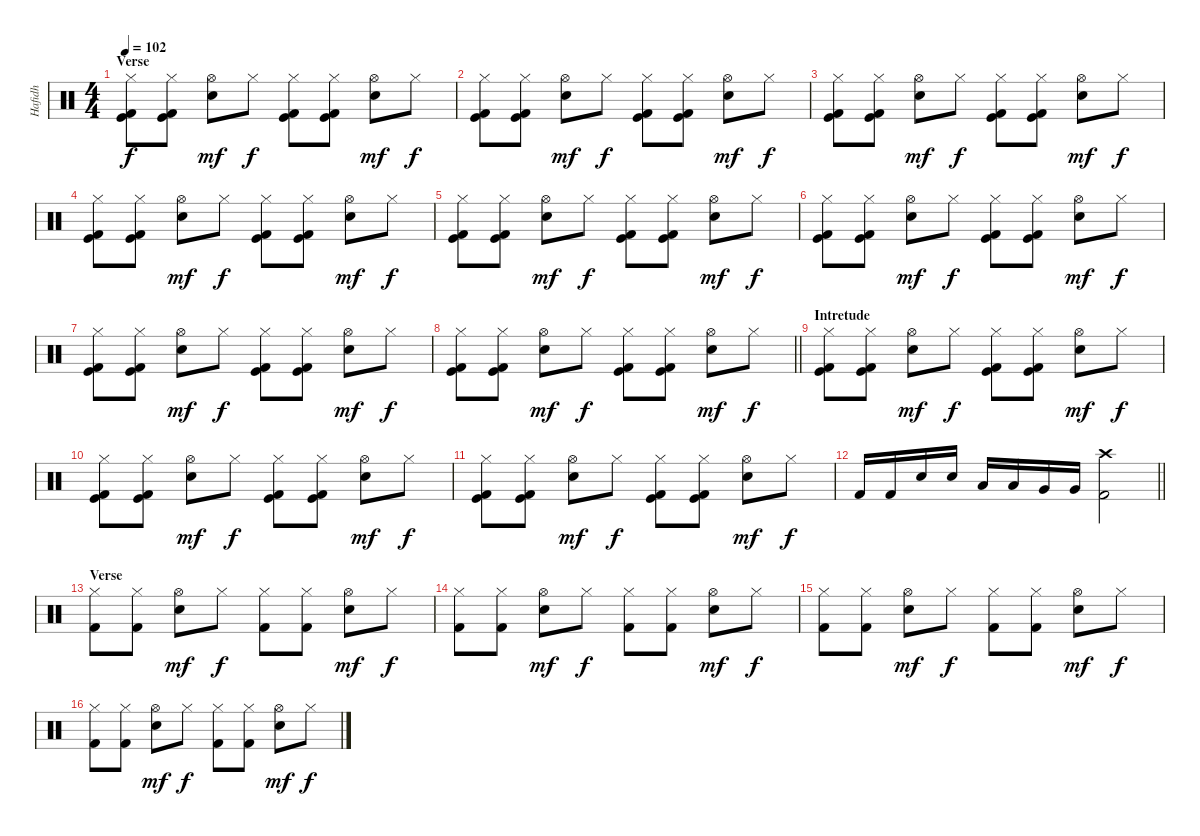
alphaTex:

\track ("Hafidh" "Hafidh") {instrument percussion}
\staff {score}
\articulation defaults
\ts (4 4)
\section ("" "Verse")
\tempo 102
\clef neutral
\ks c
("Hi-Hat (closed)" "Kick (hit) 2" "Kick (hit)").8{dy f} ("Hi-Hat (closed)" "Kick (hit) 2" "Kick (hit)").8 ("Hi-Hat (open)" "Electric Snare (hit)").8{dy mf} "Hi-Hat (closed)".8{dy f} ("Hi-Hat (closed)" "Kick (hit) 2" "Kick (hit)").8 ("Hi-Hat (closed)" "Kick (hit) 2" "Kick (hit)").8 ("Hi-Hat (open)" "Electric Snare (hit)").8{dy mf} "Hi-Hat (closed)".8{dy f} |
("Hi-Hat (closed)" "Kick (hit) 2" "Kick (hit)").8 ("Hi-Hat (closed)" "Kick (hit) 2" "Kick (hit)").8 ("Hi-Hat (open)" "Electric Snare (hit)").8{dy mf} "Hi-Hat (closed)".8{dy f} ("Hi-Hat (closed)" "Kick (hit) 2" "Kick (hit)").8 ("Hi-Hat (closed)" "Kick (hit) 2" "Kick (hit)").8 ("Hi-Hat (open)" "Electric Snare (hit)").8{dy mf} "Hi-Hat (closed)".8{dy f} |
("Hi-Hat (closed)" "Kick (hit) 2" "Kick (hit)").8 ("Hi-Hat (closed)" "Kick (hit) 2" "Kick (hit)").8 ("Hi-Hat (open)" "Electric Snare (hit)").8{dy mf} "Hi-Hat (closed)".8{dy f} ("Hi-Hat (closed)" "Kick (hit) 2" "Kick (hit)").8 ("Hi-Hat (closed)" "Kick (hit) 2" "Kick (hit)").8 ("Hi-Hat (open)" "Electric Snare (hit)").8{dy mf} "Hi-Hat (closed)".8{dy f} |
("Hi-Hat (closed)" "Kick (hit) 2" "Kick (hit)").8 ("Hi-Hat (closed)" "Kick (hit) 2" "Kick (hit)").8 ("Hi-Hat (open)" "Electric Snare (hit)").8{dy mf} "Hi-Hat (closed)".8{dy f} ("Hi-Hat (closed)" "Kick (hit) 2" "Kick (hit)").8 ("Hi-Hat (closed)" "Kick (hit) 2" "Kick (hit)").8 ("Hi-Hat (open)" "Electric Snare (hit)").8{dy mf} "Hi-Hat (closed)".8{dy f} |
("Hi-Hat (closed)" "Kick (hit) 2" "Kick (hit)").8 ("Hi-Hat (closed)" "Kick (hit) 2" "Kick (hit)").8 ("Hi-Hat (open)" "Electric Snare (hit)").8{dy mf} "Hi-Hat (closed)".8{dy f} ("Hi-Hat (closed)" "Kick (hit) 2" "Kick (hit)").8 ("Hi-Hat (closed)" "Kick (hit) 2" "Kick (hit)").8 ("Hi-Hat (open)" "Electric Snare (hit)").8{dy mf} "Hi-Hat (closed)".8{dy f} |
("Hi-Hat (closed)" "Kick (hit) 2" "Kick (hit)").8 ("Hi-Hat (closed)" "Kick (hit) 2" "Kick (hit)").8 ("Hi-Hat (open)" "Electric Snare (hit)").8{dy mf} "Hi-Hat (closed)".8{dy f} ("Hi-Hat (closed)" "Kick (hit) 2" "Kick (hit)").8 ("Hi-Hat (closed)" "Kick (hit) 2" "Kick (hit)").8 ("Hi-Hat (open)" "Electric Snare (hit)").8{dy mf} "Hi-Hat (closed)".8{dy f} |
("Hi-Hat (closed)" "Kick (hit) 2" "Kick (hit)").8 ("Hi-Hat (closed)" "Kick (hit) 2" "Kick (hit)").8 ("Hi-Hat (open)" "Electric Snare (hit)").8{dy mf} "Hi-Hat (closed)".8{dy f} ("Hi-Hat (closed)" "Kick (hit) 2" "Kick (hit)").8 ("Hi-Hat (closed)" "Kick (hit) 2" "Kick (hit)").8 ("Hi-Hat (open)" "Electric Snare (hit)").8{dy mf} "Hi-Hat (closed)".8{dy f} |
\barLineRight lightlight
("Hi-Hat (closed)" "Kick (hit) 2" "Kick (hit)").8 ("Hi-Hat (closed)" "Kick (hit) 2" "Kick (hit)").8 ("Hi-Hat (open)" "Electric Snare (hit)").8{dy mf} "Hi-Hat (closed)".8{dy f} ("Hi-Hat (closed)" "Kick (hit) 2" "Kick (hit)").8 ("Hi-Hat (closed)" "Kick (hit) 2" "Kick (hit)").8 ("Hi-Hat (open)" "Electric Snare (hit)").8{dy mf} "Hi-Hat (closed)".8{dy f} |
\section ("" "Intretude")
("Hi-Hat (closed)" "Kick (hit) 2" "Kick (hit)").8 ("Hi-Hat (closed)" "Kick (hit) 2" "Kick (hit)").8 ("Hi-Hat (open)" "Electric Snare (hit)").8{dy mf} "Hi-Hat (closed)".8{dy f} ("Hi-Hat (closed)" "Kick (hit) 2" "Kick (hit)").8 ("Hi-Hat (closed)" "Kick (hit) 2" "Kick (hit)").8 ("Hi-Hat (open)" "Electric Snare (hit)").8{dy mf} "Hi-Hat (closed)".8{dy f} |
("Hi-Hat (closed)" "Kick (hit) 2" "Kick (hit)").8 ("Hi-Hat (closed)" "Kick (hit) 2" "Kick (hit)").8 ("Hi-Hat (open)" "Electric Snare (hit)").8{dy mf} "Hi-Hat (closed)".8{dy f} ("Hi-Hat (closed)" "Kick (hit) 2" "Kick (hit)").8 ("Hi-Hat (closed)" "Kick (hit) 2" "Kick (hit)").8 ("Hi-Hat (open)" "Electric Snare (hit)").8{dy mf} "Hi-Hat (closed)".8{dy f} |
("Hi-Hat (closed)" "Kick (hit) 2" "Kick (hit)").8 ("Hi-Hat (closed)" "Kick (hit) 2" "Kick (hit)").8 ("Hi-Hat (open)" "Electric Snare (hit)").8{dy mf} "Hi-Hat (closed)".8{dy f} ("Hi-Hat (closed)" "Kick (hit) 2" "Kick (hit)").8 ("Hi-Hat (closed)" "Kick (hit) 2" "Kick (hit)").8 ("Hi-Hat (open)" "Electric Snare (hit)").8{dy mf} "Hi-Hat (closed)".8{dy f} |
\barLineRight lightlight "Kick (hit) 2".16 "Kick (hit) 2".16 "Electric Snare (hit)".16 "Electric Snare (hit)".16 "Low Tom (hit)".16 "Low Tom (hit)".16 "Very Low Tom (hit)".16 "Very Low Tom (hit)".16
("Crash high (hit)" "Kick (hit) 2").2{volume 16} |
\section ("" "Verse")
("Hi-Hat (closed)" "Kick (hit) 2").8 ("Hi-Hat (closed)" "Kick (hit) 2").8 ("Hi-Hat (open)" "Electric Snare (hit)").8{dy mf} "Hi-Hat (closed)".8{dy f} ("Hi-Hat (closed)" "Kick (hit) 2").8 ("Hi-Hat (closed)" "Kick (hit) 2").8 ("Hi-Hat (open)" "Electric Snare (hit)").8{dy mf} "Hi-Hat (closed)".8{dy f} |
("Hi-Hat (closed)" "Kick (hit) 2").8 ("Hi-Hat (closed)" "Kick (hit) 2").8 ("Hi-Hat (open)" "Electric Snare (hit)").8{dy mf} "Hi-Hat (closed)".8{dy f} ("Hi-Hat (closed)" "Kick (hit) 2").8 ("Hi-Hat (closed)" "Kick (hit) 2").8 ("Hi-Hat (open)" "Electric Snare (hit)").8{dy mf} "Hi-Hat (closed)".8{dy f} |
("Hi-Hat (closed)" "Kick (hit) 2").8 ("Hi-Hat (closed)" "Kick (hit) 2").8 ("Hi-Hat (open)" "Electric Snare (hit)").8{dy mf} "Hi-Hat (closed)".8{dy f} ("Hi-Hat (closed)" "Kick (hit) 2").8 ("Hi-Hat (closed)" "Kick (hit) 2").8 ("Hi-Hat (open)" "Electric Snare (hit)").8{dy mf} "Hi-Hat (closed)".8{dy f} |
("Hi-Hat (closed)" "Kick (hit) 2").8 ("Hi-Hat (closed)" "Kick (hit) 2").8 ("Hi-Hat (open)" "Electric Snare (hit)").8{dy mf} "Hi-Hat (closed)".8{dy f} ("Hi-Hat (closed)" "Kick (hit) 2").8 ("Hi-Hat (closed)" "Kick (hit) 2").8 ("Hi-Hat (open)" "Electric Snare (hit)").8{dy mf} "Hi-Hat (closed)".8{dy f}
